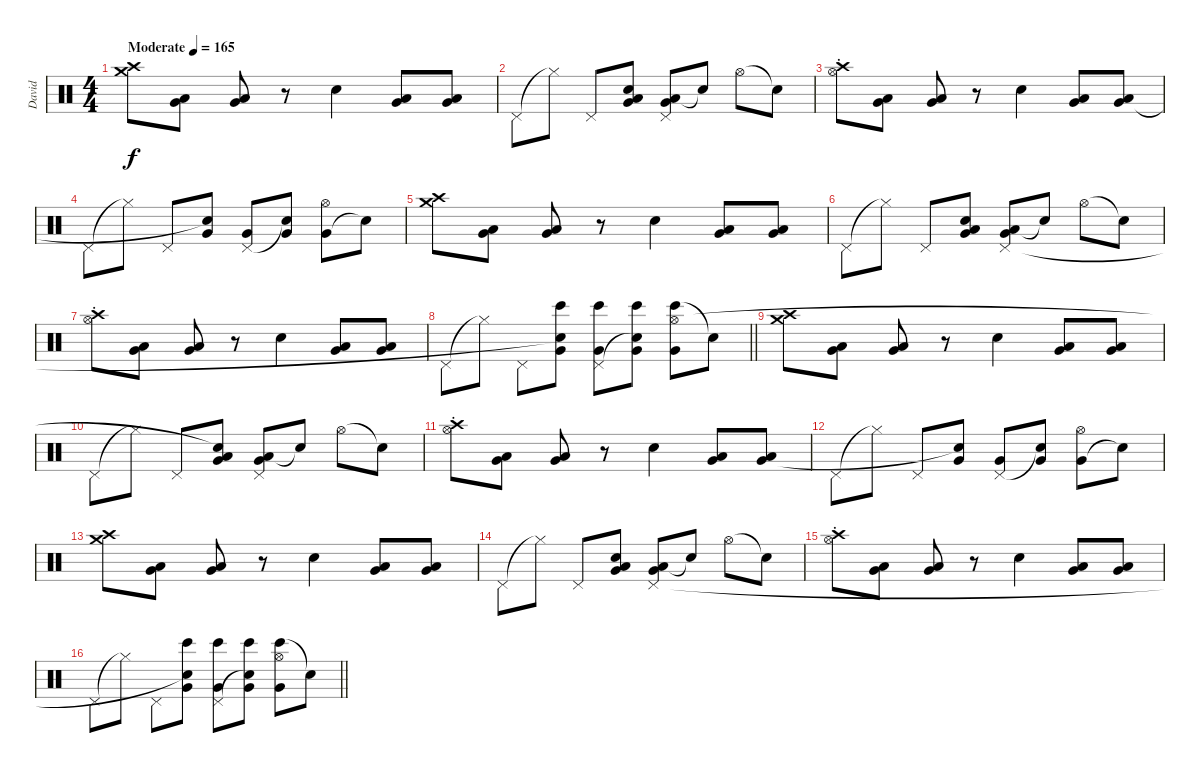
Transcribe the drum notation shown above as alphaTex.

\track ("David" "David") {instrument percussion}
\staff {score}
\articulation defaults
\ts (4 4)
\tempo (165 "Moderate")
\clef neutral
\ks c
("Crash high (hit)" "Crash medium (hit)").8{dy f} ("Low Floor Tom (hit)" "Very Low Tom (hit)").8 ("Low Floor Tom (hit)" "Very Low Tom (hit)").8 r.8 "Electric Snare (hit)".4 ("Low Floor Tom (hit)" "Very Low Tom (hit)").8 ("Low Floor Tom (hit)" "Very Low Tom (hit)").8 |
"Pedal Hi-Hat (hit)".8 "Hi-Hat (closed)"{t}.8 "Pedal Hi-Hat (hit)".8 ("Low Tom (hit)" "Very Low Tom (hit)" "Snare (hit)").8 ("Low Floor Tom (hit)" "Very Low Tom (hit)" "Pedal Hi-Hat (hit)").8 "Snare (hit)"{t}.8 "Hi-Hat (open)".8 "Snare (hit)"{t}.8 |
("Crash high (hit)" "Hi-Hat (open)"{st}).8 ("Low Floor Tom (hit)" "Very Low Tom (hit)").8 ("Low Floor Tom (hit)" "Very Low Tom (hit)").8 r.8 "Electric Snare (hit)".4 ("Low Floor Tom (hit)" "Very Low Tom (hit)").8 ("Low Floor Tom (hit)" "Very Low Tom (hit)").8 |
"Pedal Hi-Hat (hit)".8 "Hi-Hat (closed)"{t}.8 "Pedal Hi-Hat (hit)".8 ("Very Low Tom (hit)" "Snare (hit)"{t}).8 ("Very Low Tom (hit)" "Pedal Hi-Hat (hit)").8 ("Very Low Tom (hit)" "Snare (hit)"{t}).8 ("Very Low Tom (hit)" "Hi-Hat (open)").8 "Snare (hit)"{t}.8 |
("Crash high (hit)" "Crash medium (hit)").8 ("Low Floor Tom (hit)" "Very Low Tom (hit)").8 ("Low Floor Tom (hit)" "Very Low Tom (hit)").8 r.8 "Electric Snare (hit)".4 ("Low Floor Tom (hit)" "Very Low Tom (hit)").8 ("Low Floor Tom (hit)" "Very Low Tom (hit)").8 |
"Pedal Hi-Hat (hit)".8 "Hi-Hat (closed)"{t}.8 "Pedal Hi-Hat (hit)".8 ("Low Tom (hit)" "Very Low Tom (hit)" "Snare (hit)").8 ("Low Floor Tom (hit)" "Very Low Tom (hit)" "Pedal Hi-Hat (hit)").8 "Snare (hit)"{t}.8 "Hi-Hat (open)".8 "Snare (hit)"{t}.8 |
("Crash high (hit)" "Hi-Hat (open)"{st}).8 ("Low Floor Tom (hit)" "Very Low Tom (hit)").8 ("Low Floor Tom (hit)" "Very Low Tom (hit)").8 r.8 "Electric Snare (hit)".4 ("Low Floor Tom (hit)" "Very Low Tom (hit)").8 ("Low Floor Tom (hit)" "Very Low Tom (hit)").8 |
\barLineRight lightlight "Pedal Hi-Hat (hit)".8 "Hi-Hat (closed)"{t}.8 "Pedal Hi-Hat (hit)".8
("Bongo High (hit)" "Very Low Tom (hit)" "Snare (hit)"{t}).8 ("Bongo High (hit)" "Very Low Tom (hit)" "Pedal Hi-Hat (hit)").8 ("Bongo High (hit)" "Very Low Tom (hit)" "Snare (hit)"{t}).8 ("Bongo High (hit)" "Very Low Tom (hit)" "Hi-Hat (open)").8 "Snare (hit)"{t}.8 |
("Crash high (hit)" "Crash medium (hit)").8 ("Low Floor Tom (hit)" "Very Low Tom (hit)").8 ("Low Floor Tom (hit)" "Very Low Tom (hit)").8 r.8 "Electric Snare (hit)".4 ("Low Floor Tom (hit)" "Very Low Tom (hit)").8 ("Low Floor Tom (hit)" "Very Low Tom (hit)").8 |
"Pedal Hi-Hat (hit)".8 "Hi-Hat (closed)"{t}.8 "Pedal Hi-Hat (hit)".8 ("Low Tom (hit)" "Very Low Tom (hit)" "Snare (hit)"{t}).8 ("Low Floor Tom (hit)" "Very Low Tom (hit)" "Pedal Hi-Hat (hit)").8 "Snare (hit)"{t}.8 "Hi-Hat (open)".8 "Snare (hit)"{t}.8 |
("Crash high (hit)" "Hi-Hat (open)"{st}).8 ("Low Floor Tom (hit)" "Very Low Tom (hit)").8 ("Low Floor Tom (hit)" "Very Low Tom (hit)").8 r.8 "Electric Snare (hit)".4 ("Low Floor Tom (hit)" "Very Low Tom (hit)").8 ("Low Floor Tom (hit)" "Very Low Tom (hit)").8 |
"Pedal Hi-Hat (hit)".8 "Hi-Hat (closed)"{t}.8 "Pedal Hi-Hat (hit)".8 ("Very Low Tom (hit)" "Snare (hit)"{t}).8 ("Very Low Tom (hit)" "Pedal Hi-Hat (hit)").8 ("Very Low Tom (hit)" "Snare (hit)"{t}).8 ("Very Low Tom (hit)" "Hi-Hat (open)").8 "Snare (hit)"{t}.8 |
("Crash high (hit)" "Crash medium (hit)").8 ("Low Floor Tom (hit)" "Very Low Tom (hit)").8 ("Low Floor Tom (hit)" "Very Low Tom (hit)").8 r.8 "Electric Snare (hit)".4 ("Low Floor Tom (hit)" "Very Low Tom (hit)").8 ("Low Floor Tom (hit)" "Very Low Tom (hit)").8 |
"Pedal Hi-Hat (hit)".8 "Hi-Hat (closed)"{t}.8 "Pedal Hi-Hat (hit)".8 ("Low Tom (hit)" "Very Low Tom (hit)" "Snare (hit)").8 ("Low Floor Tom (hit)" "Very Low Tom (hit)" "Pedal Hi-Hat (hit)").8 "Snare (hit)"{t}.8 "Hi-Hat (open)".8 "Snare (hit)"{t}.8 |
("Crash high (hit)" "Hi-Hat (open)"{st}).8 ("Low Floor Tom (hit)" "Very Low Tom (hit)").8 ("Low Floor Tom (hit)" "Very Low Tom (hit)").8 r.8 "Electric Snare (hit)".4 ("Low Floor Tom (hit)" "Very Low Tom (hit)").8 ("Low Floor Tom (hit)" "Very Low Tom (hit)").8 |
\barLineRight lightlight "Pedal Hi-Hat (hit)".8 "Hi-Hat (closed)"{t}.8 "Pedal Hi-Hat (hit)".8
("Bongo High (hit)" "Very Low Tom (hit)" "Snare (hit)"{t}).8 ("Bongo High (hit)" "Very Low Tom (hit)" "Pedal Hi-Hat (hit)").8 ("Bongo High (hit)" "Very Low Tom (hit)" "Snare (hit)"{t}).8 ("Bongo High (hit)" "Very Low Tom (hit)" "Hi-Hat (open)").8 "Snare (hit)"{t}.8
